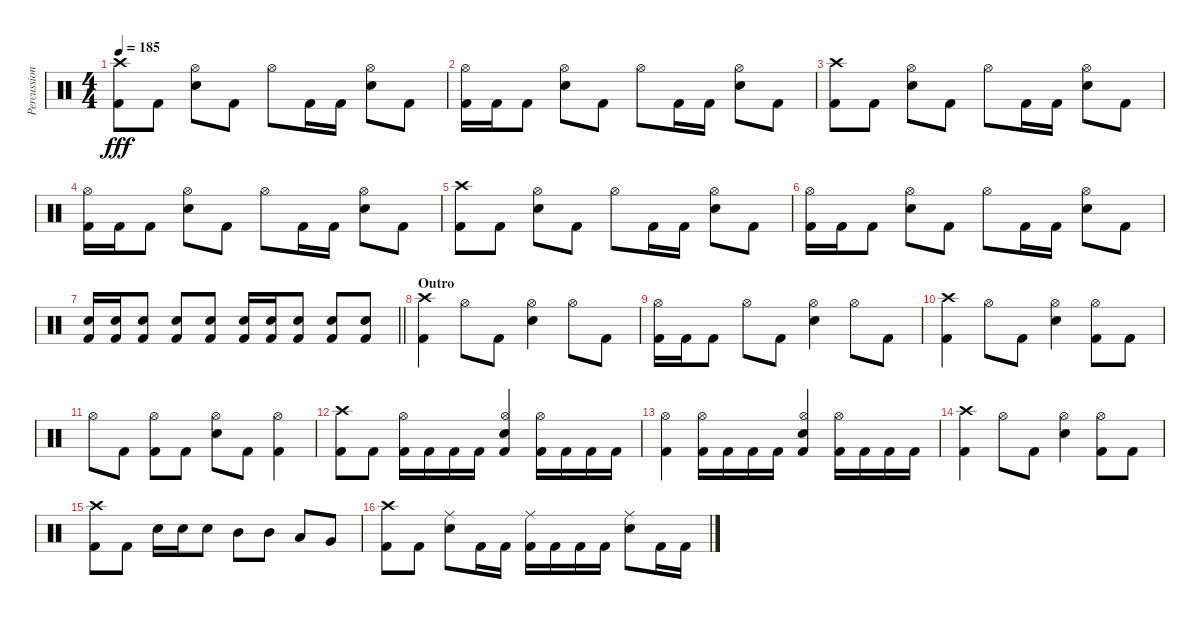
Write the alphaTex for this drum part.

\track ("Percussion" "Percussion") {instrument percussion}
\staff {score}
\articulation defaults
\ts (4 4)
\tempo 185
\clef neutral
\ks c
("Crash high (hit)" "Kick (hit) 2").8{dy fff} "Kick (hit) 2".8 ("Hi-Hat (open)" "Electric Snare (hit)").8 "Kick (hit) 2".8 "Hi-Hat (open)".8 "Kick (hit) 2".16 "Kick (hit) 2".16 ("Hi-Hat (open)" "Electric Snare (hit)").8 "Kick (hit) 2".8 |
("Hi-Hat (open)" "Kick (hit) 2").16 "Kick (hit) 2".16 "Kick (hit) 2".8 ("Hi-Hat (open)" "Electric Snare (hit)").8 "Kick (hit) 2".8 "Hi-Hat (open)".8 "Kick (hit) 2".16 "Kick (hit) 2".16 ("Hi-Hat (open)" "Electric Snare (hit)").8 "Kick (hit) 2".8 |
("Crash high (hit)" "Kick (hit) 2").8 "Kick (hit) 2".8 ("Hi-Hat (open)" "Electric Snare (hit)").8 "Kick (hit) 2".8 "Hi-Hat (open)".8 "Kick (hit) 2".16 "Kick (hit) 2".16 ("Hi-Hat (open)" "Electric Snare (hit)").8 "Kick (hit) 2".8 |
("Hi-Hat (open)" "Kick (hit) 2").16 "Kick (hit) 2".16 "Kick (hit) 2".8 ("Hi-Hat (open)" "Electric Snare (hit)").8 "Kick (hit) 2".8 "Hi-Hat (open)".8 "Kick (hit) 2".16 "Kick (hit) 2".16 ("Hi-Hat (open)" "Electric Snare (hit)").8 "Kick (hit) 2".8 |
("Crash high (hit)" "Kick (hit) 2").8 "Kick (hit) 2".8 ("Hi-Hat (open)" "Electric Snare (hit)").8 "Kick (hit) 2".8 "Hi-Hat (open)".8 "Kick (hit) 2".16 "Kick (hit) 2".16 ("Hi-Hat (open)" "Electric Snare (hit)").8 "Kick (hit) 2".8 |
("Hi-Hat (open)" "Kick (hit) 2").16 "Kick (hit) 2".16 "Kick (hit) 2".8 ("Hi-Hat (open)" "Electric Snare (hit)").8 "Kick (hit) 2".8 "Hi-Hat (open)".8 "Kick (hit) 2".16 "Kick (hit) 2".16 ("Hi-Hat (open)" "Electric Snare (hit)").8 "Kick (hit) 2".8 |
\barLineRight lightlight
("Electric Snare (hit)" "Kick (hit) 2").16 ("Electric Snare (hit)" "Kick (hit) 2").16 ("Electric Snare (hit)" "Kick (hit) 2").8 ("Electric Snare (hit)" "Kick (hit) 2").8 ("Electric Snare (hit)" "Kick (hit) 2").8 ("Electric Snare (hit)" "Kick (hit) 2").16 ("Electric Snare (hit)" "Kick (hit) 2").16 ("Electric Snare (hit)" "Kick (hit) 2").8 ("Electric Snare (hit)" "Kick (hit) 2").8 ("Electric Snare (hit)" "Kick (hit) 2").8 |
\section ("" "Outro")
("Crash high (hit)" "Kick (hit) 2").4 "Hi-Hat (open)".8 "Kick (hit) 2".8 ("Hi-Hat (open)" "Electric Snare (hit)").4 "Hi-Hat (open)".8 "Kick (hit) 2".8 |
("Hi-Hat (open)" "Kick (hit) 2").16 "Kick (hit) 2".16 "Kick (hit) 2".8 "Hi-Hat (open)".8 "Kick (hit) 2".8 ("Hi-Hat (open)" "Electric Snare (hit)").4 "Hi-Hat (open)".8 "Kick (hit) 2".8 |
("Crash high (hit)" "Kick (hit) 2").4 "Hi-Hat (open)".8 "Kick (hit) 2".8 ("Hi-Hat (open)" "Electric Snare (hit)").4 ("Hi-Hat (open)" "Kick (hit) 2").8 "Kick (hit) 2".8 |
"Hi-Hat (open)".8 "Kick (hit) 2".8 ("Hi-Hat (open)" "Kick (hit) 2").8 "Kick (hit) 2".8 ("Hi-Hat (open)" "Electric Snare (hit)").8 "Kick (hit) 2".8 ("Hi-Hat (open)" "Kick (hit) 2").4 |
("Crash high (hit)" "Kick (hit) 2").8 "Kick (hit) 2".8 ("Hi-Hat (open)" "Kick (hit) 2").16 "Kick (hit) 2".16 "Kick (hit) 2".16 "Kick (hit) 2".16 ("Hi-Hat (open)" "Electric Snare (hit)" "Kick (hit) 2").4 ("Hi-Hat (open)" "Kick (hit) 2").16 "Kick (hit) 2".16 "Kick (hit) 2".16 "Kick (hit) 2".16 |
("Hi-Hat (open)" "Kick (hit) 2").4 ("Hi-Hat (open)" "Kick (hit) 2").16 "Kick (hit) 2".16 "Kick (hit) 2".16 "Kick (hit) 2".16 ("Hi-Hat (open)" "Electric Snare (hit)" "Kick (hit) 2").4 ("Hi-Hat (open)" "Kick (hit) 2").16 "Kick (hit) 2".16 "Kick (hit) 2".16 "Kick (hit) 2".16 |
("Crash high (hit)" "Kick (hit) 2").4 "Hi-Hat (open)".8 "Kick (hit) 2".8 ("Hi-Hat (open)" "Electric Snare (hit)").4 ("Hi-Hat (open)" "Kick (hit) 2").8 "Kick (hit) 2".8 |
("Crash high (hit)" "Kick (hit) 2").8 "Kick (hit) 2".8 "Electric Snare (hit)".16 "Electric Snare (hit)".16 "Electric Snare (hit)".8 "Mid Tom (hit)".8 "Mid Tom (hit)".8 "Low Tom (hit)".8 "Very Low Tom (hit)".8 |
("Crash high (hit)" "Kick (hit) 2").8 "Kick (hit) 2".8 ("Ride (middle)" "Electric Snare (hit)").8 "Kick (hit) 2".16 "Kick (hit) 2".16 ("Ride (middle)" "Kick (hit) 2").16 "Kick (hit) 2".16 "Kick (hit) 2".16 "Kick (hit) 2".16 ("Ride (middle)" "Electric Snare (hit)").8 "Kick (hit) 2".16 "Kick (hit) 2".16
